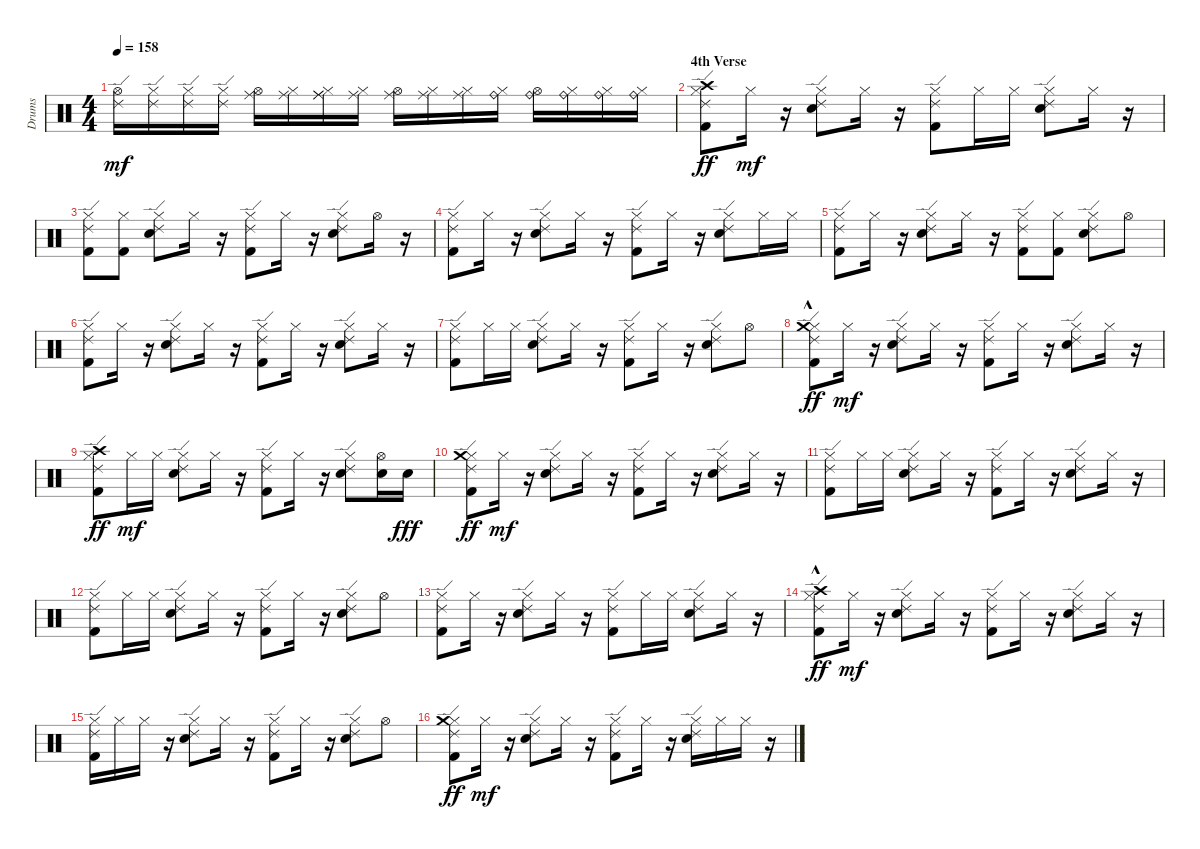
\track ("Drums" "Drums") {instrument percussion}
\staff {score}
\articulation defaults
\ts (4 4)
\tempo 158
\clef neutral
\ks c
("Hi-Hat (open)" "Ride (edge) 2").16{dy mf} ("Hi-Hat (closed)" "Ride (edge) 2").16 ("Hi-Hat (closed)" "Ride (edge) 2").16 ("Hi-Hat (closed)" "Ride (edge) 2").16 ("Hi-Hat (open)" "Ride (middle)").16 ("Hi-Hat (closed)" "Ride (middle)").16 ("Hi-Hat (closed)" "Ride (middle)" "Ride (middle)").16 ("Hi-Hat (closed)" "Ride (middle)").16 ("Hi-Hat (open)" "Ride (middle)").16 ("Hi-Hat (closed)" "Ride (middle)").16 ("Hi-Hat (closed)" "Ride (middle)").16 ("Hi-Hat (closed)" "Ride (bell)").16 ("Hi-Hat (open)" "Ride (bell)").16 ("Hi-Hat (closed)" "Ride (bell)").16 ("Hi-Hat (closed)" "Ride (bell)").16 ("Hi-Hat (closed)" "Ride (bell)").16 |
\section ("" "4th Verse")
("Kick (hit) 2" "Hi-Hat (closed)" "Ride (edge) 2" "Crash high (hit)").8{dy ff} "Hi-Hat (closed)".16{dy mf} r.16 ("Snare (hit) 2" "Hi-Hat (closed)" "Ride (edge) 2").8 "Hi-Hat (closed)".16 r.16 ("Kick (hit) 2" "Hi-Hat (closed)" "Ride (edge) 2").8 "Hi-Hat (closed)".16 "Hi-Hat (closed)".16 ("Snare (hit) 2" "Hi-Hat (closed)" "Ride (edge) 2").8 "Hi-Hat (closed)".16 r.16 |
("Kick (hit) 2" "Hi-Hat (closed)" "Ride (edge) 2").8 ("Kick (hit) 2" "Hi-Hat (closed)").8 ("Snare (hit) 2" "Hi-Hat (closed)" "Ride (edge) 2").8 "Hi-Hat (closed)".16 r.16 ("Kick (hit) 2" "Hi-Hat (closed)" "Ride (edge) 2").8 "Hi-Hat (closed)".16 r.16 ("Snare (hit) 2" "Hi-Hat (closed)" "Ride (edge) 2").8 "Hi-Hat (open)".16 r.16 |
("Kick (hit) 2" "Hi-Hat (closed)" "Ride (edge) 2").8 "Hi-Hat (closed)".16 r.16 ("Snare (hit) 2" "Hi-Hat (closed)" "Ride (edge) 2").8 "Hi-Hat (closed)".16 r.16 ("Kick (hit) 2" "Hi-Hat (closed)" "Ride (edge) 2").8 "Hi-Hat (closed)".16 r.16 ("Snare (hit) 2" "Hi-Hat (closed)" "Ride (edge) 2").8 "Hi-Hat (closed)".16 "Hi-Hat (closed)".16 |
("Kick (hit) 2" "Hi-Hat (closed)" "Ride (edge) 2").8 "Hi-Hat (closed)".16 r.16 ("Snare (hit) 2" "Hi-Hat (closed)" "Ride (edge) 2").8 "Hi-Hat (closed)".16 r.16 ("Kick (hit) 2" "Hi-Hat (closed)" "Ride (edge) 2").8 ("Kick (hit) 2" "Hi-Hat (closed)").8 ("Snare (hit) 2" "Hi-Hat (closed)" "Ride (edge) 2").8 "Hi-Hat (open)".8 |
("Kick (hit) 2" "Hi-Hat (closed)" "Ride (edge) 2").8 "Hi-Hat (closed)".16 r.16 ("Snare (hit) 2" "Hi-Hat (closed)" "Ride (edge) 2").8 "Hi-Hat (closed)".16 r.16 ("Kick (hit) 2" "Hi-Hat (closed)" "Ride (edge) 2").8 "Hi-Hat (closed)".16 r.16 ("Snare (hit) 2" "Hi-Hat (closed)" "Ride (edge) 2").8 "Hi-Hat (closed)".16 r.16 |
("Kick (hit) 2" "Hi-Hat (closed)" "Ride (edge) 2").8 "Hi-Hat (closed)".16 "Hi-Hat (closed)".16 ("Snare (hit) 2" "Hi-Hat (closed)" "Ride (edge) 2").8 "Hi-Hat (closed)".16 r.16 ("Kick (hit) 2" "Hi-Hat (closed)" "Ride (edge) 2").8 "Hi-Hat (closed)".16 r.16 ("Snare (hit) 2" "Hi-Hat (closed)" "Ride (edge) 2").8 "Hi-Hat (open)".8 |
("Kick (hit) 2" "Hi-Hat (closed)" "Ride (edge) 2" "Crash medium (hit)"{hac}).8{dy ff} "Hi-Hat (closed)".16{dy mf} r.16 ("Snare (hit) 2" "Hi-Hat (closed)" "Ride (edge) 2").8 "Hi-Hat (closed)".16 r.16 ("Kick (hit) 2" "Hi-Hat (closed)" "Ride (edge) 2").8 "Hi-Hat (closed)".16 r.16 ("Snare (hit) 2" "Hi-Hat (closed)" "Ride (edge) 2").8 "Hi-Hat (closed)".16 r.16 |
("Kick (hit) 2" "Hi-Hat (closed)" "Ride (edge) 2" "Crash high (hit)").8{dy ff} "Hi-Hat (closed)".16{dy mf} "Hi-Hat (closed)".16 ("Snare (hit) 2" "Hi-Hat (closed)" "Ride (edge) 2").8 "Hi-Hat (closed)".16 r.16 ("Kick (hit) 2" "Hi-Hat (closed)" "Ride (edge) 2").8 "Hi-Hat (closed)".16 r.16 ("Snare (hit) 2" "Hi-Hat (closed)" "Ride (edge) 2").8 ("Snare (hit) 2" "Hi-Hat (open)").16 "Snare (hit) 2".16{dy fff} |
("Kick (hit) 2" "Hi-Hat (closed)" "Ride (edge) 2" "Crash medium (hit)").8{dy ff} "Hi-Hat (closed)".16{dy mf} r.16 ("Snare (hit) 2" "Hi-Hat (closed)" "Ride (edge) 2").8 "Hi-Hat (closed)".16 r.16 ("Kick (hit) 2" "Hi-Hat (closed)" "Ride (edge) 2").8 "Hi-Hat (closed)".16 r.16 ("Snare (hit) 2" "Hi-Hat (closed)" "Ride (edge) 2").8 "Hi-Hat (closed)".16 r.16 |
("Kick (hit) 2" "Hi-Hat (closed)" "Ride (edge) 2").8 "Hi-Hat (closed)".16 "Hi-Hat (closed)".16 ("Snare (hit) 2" "Hi-Hat (closed)" "Ride (edge) 2").8 "Hi-Hat (closed)".16 r.16 ("Kick (hit) 2" "Hi-Hat (closed)" "Ride (edge) 2").8 "Hi-Hat (closed)".16 r.16 ("Snare (hit) 2" "Hi-Hat (closed)" "Ride (edge) 2").8 "Hi-Hat (closed)".16 r.16 |
("Kick (hit) 2" "Hi-Hat (closed)" "Ride (edge) 2").8 "Hi-Hat (closed)".16 "Hi-Hat (closed)".16 ("Snare (hit) 2" "Hi-Hat (closed)" "Ride (edge) 2").8 "Hi-Hat (closed)".16 r.16 ("Kick (hit) 2" "Hi-Hat (closed)" "Ride (edge) 2").8 "Hi-Hat (closed)".16 r.16 ("Snare (hit) 2" "Hi-Hat (closed)" "Ride (edge) 2").8 "Hi-Hat (open)".8 |
("Kick (hit) 2" "Hi-Hat (closed)" "Ride (edge) 2").8 "Hi-Hat (closed)".16 r.16 ("Snare (hit) 2" "Hi-Hat (closed)" "Ride (edge) 2").8 "Hi-Hat (closed)".16 r.16 ("Kick (hit) 2" "Hi-Hat (closed)" "Ride (edge) 2").8 "Hi-Hat (closed)".16 "Hi-Hat (closed)".16 ("Snare (hit) 2" "Hi-Hat (closed)" "Ride (edge) 2").8 "Hi-Hat (closed)".16 r.16 |
("Kick (hit) 2" "Hi-Hat (closed)" "Ride (edge) 2" "Crash high (hit)"{hac}).8{dy ff} "Hi-Hat (closed)".16{dy mf} r.16 ("Snare (hit) 2" "Hi-Hat (closed)" "Ride (edge) 2").8 "Hi-Hat (closed)".16 r.16 ("Kick (hit) 2" "Hi-Hat (closed)" "Ride (edge) 2").8 "Hi-Hat (closed)".16 r.16 ("Snare (hit) 2" "Hi-Hat (closed)" "Ride (edge) 2").8 "Hi-Hat (closed)".16 r.16 |
("Kick (hit) 2" "Hi-Hat (closed)" "Ride (edge) 2").16 "Hi-Hat (closed)".16 "Hi-Hat (closed)".16 r.16 ("Snare (hit) 2" "Hi-Hat (closed)" "Ride (edge) 2").8 "Hi-Hat (closed)".16 r.16 ("Kick (hit) 2" "Hi-Hat (closed)" "Ride (edge) 2").8 "Hi-Hat (closed)".16 r.16 ("Snare (hit) 2" "Hi-Hat (closed)" "Ride (edge) 2").8 "Hi-Hat (open)".8 |
("Kick (hit) 2" "Hi-Hat (closed)" "Ride (edge) 2" "Crash medium (hit)").8{dy ff} "Hi-Hat (closed)".16{dy mf} r.16 ("Snare (hit) 2" "Hi-Hat (closed)" "Ride (edge) 2").8 "Hi-Hat (closed)".16 r.16 ("Kick (hit) 2" "Hi-Hat (closed)" "Ride (edge) 2").8 "Hi-Hat (closed)".16 r.16 ("Snare (hit) 2" "Hi-Hat (closed)" "Ride (edge) 2").16 "Hi-Hat (closed)".16 "Hi-Hat (closed)".16 r.16
